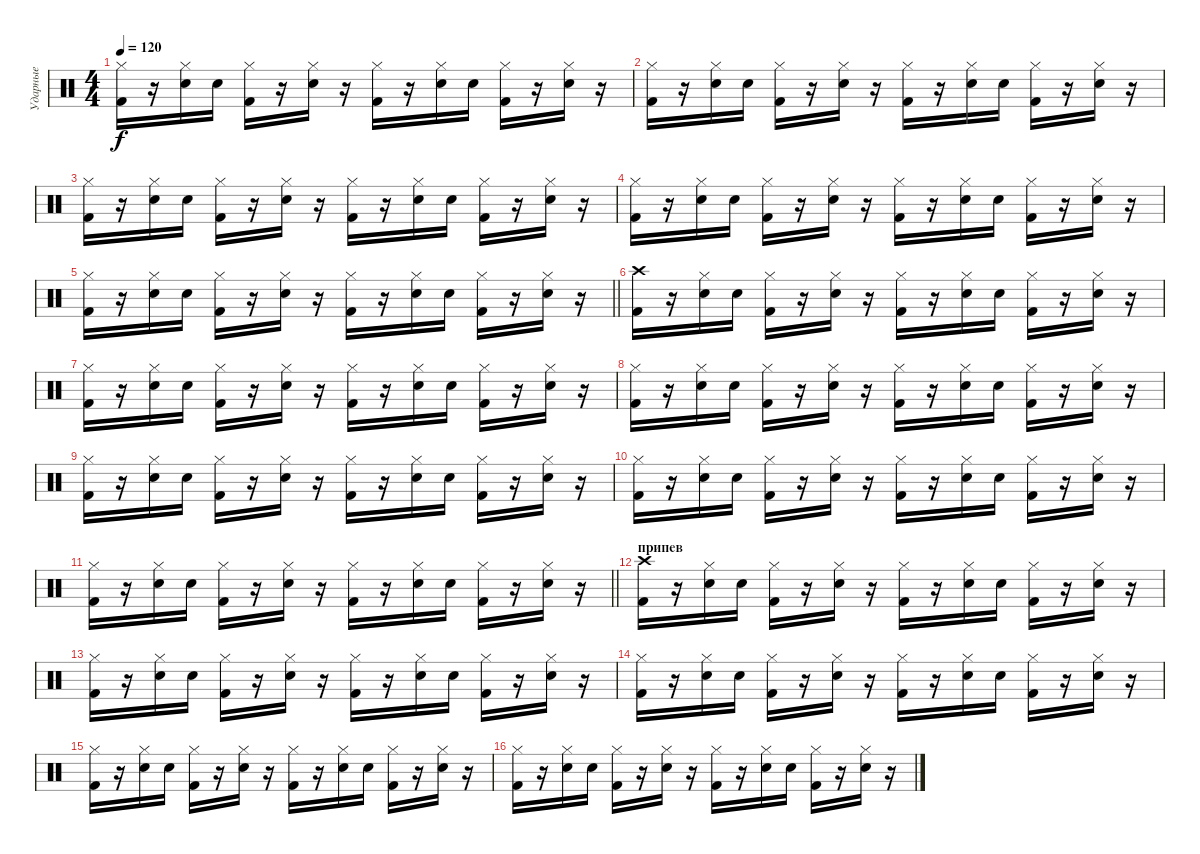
\track ("Ударные" "Ударные") {instrument percussion}
\staff {score}
\articulation defaults
\ts (4 4)
\tempo 120
\clef neutral
\ks c
("Hi-Hat (closed)" "Kick (hit) 2").16{dy f} r.16 ("Hi-Hat (closed)" "Electric Snare (hit)").16 "Electric Snare (hit)".16 ("Hi-Hat (closed)" "Kick (hit) 2").16 r.16 ("Hi-Hat (closed)" "Electric Snare (hit)").16 r.16 ("Hi-Hat (closed)" "Kick (hit) 2").16 r.16 ("Hi-Hat (closed)" "Electric Snare (hit)").16 "Electric Snare (hit)".16 ("Hi-Hat (closed)" "Kick (hit) 2").16 r.16 ("Hi-Hat (closed)" "Electric Snare (hit)").16 r.16 |
("Hi-Hat (closed)" "Kick (hit) 2").16 r.16 ("Hi-Hat (closed)" "Electric Snare (hit)").16 "Electric Snare (hit)".16 ("Hi-Hat (closed)" "Kick (hit) 2").16 r.16 ("Hi-Hat (closed)" "Electric Snare (hit)").16 r.16 ("Hi-Hat (closed)" "Kick (hit) 2").16 r.16 ("Hi-Hat (closed)" "Electric Snare (hit)").16 "Electric Snare (hit)".16 ("Hi-Hat (closed)" "Kick (hit) 2").16 r.16 ("Hi-Hat (closed)" "Electric Snare (hit)").16 r.16 |
("Hi-Hat (closed)" "Kick (hit) 2").16 r.16 ("Hi-Hat (closed)" "Electric Snare (hit)").16 "Electric Snare (hit)".16 ("Hi-Hat (closed)" "Kick (hit) 2").16 r.16 ("Hi-Hat (closed)" "Electric Snare (hit)").16 r.16 ("Hi-Hat (closed)" "Kick (hit) 2").16 r.16 ("Hi-Hat (closed)" "Electric Snare (hit)").16 "Electric Snare (hit)".16 ("Hi-Hat (closed)" "Kick (hit) 2").16 r.16 ("Hi-Hat (closed)" "Electric Snare (hit)").16 r.16 |
("Hi-Hat (closed)" "Kick (hit) 2").16 r.16 ("Hi-Hat (closed)" "Electric Snare (hit)").16 "Electric Snare (hit)".16 ("Hi-Hat (closed)" "Kick (hit) 2").16 r.16 ("Hi-Hat (closed)" "Electric Snare (hit)").16 r.16 ("Hi-Hat (closed)" "Kick (hit) 2").16 r.16 ("Hi-Hat (closed)" "Electric Snare (hit)").16 "Electric Snare (hit)".16 ("Hi-Hat (closed)" "Kick (hit) 2").16 r.16 ("Hi-Hat (closed)" "Electric Snare (hit)").16 r.16 |
\barLineRight lightlight
("Hi-Hat (closed)" "Kick (hit) 2").16 r.16 ("Hi-Hat (closed)" "Electric Snare (hit)").16 "Electric Snare (hit)".16 ("Hi-Hat (closed)" "Kick (hit) 2").16 r.16 ("Hi-Hat (closed)" "Electric Snare (hit)").16 r.16 ("Hi-Hat (closed)" "Kick (hit) 2").16 r.16 ("Hi-Hat (closed)" "Electric Snare (hit)").16 "Electric Snare (hit)".16 ("Hi-Hat (closed)" "Kick (hit) 2").16 r.16 ("Hi-Hat (closed)" "Electric Snare (hit)").16 r.16 |
("Crash high (hit)" "Kick (hit) 2").16 r.16 ("Hi-Hat (closed)" "Electric Snare (hit)").16 "Electric Snare (hit)".16 ("Hi-Hat (closed)" "Kick (hit) 2").16 r.16 ("Hi-Hat (closed)" "Electric Snare (hit)").16 r.16 ("Hi-Hat (closed)" "Kick (hit) 2").16 r.16 ("Hi-Hat (closed)" "Electric Snare (hit)").16 "Electric Snare (hit)".16 ("Hi-Hat (closed)" "Kick (hit) 2").16 r.16 ("Hi-Hat (closed)" "Electric Snare (hit)").16 r.16 |
("Hi-Hat (closed)" "Kick (hit) 2").16 r.16 ("Hi-Hat (closed)" "Electric Snare (hit)").16 "Electric Snare (hit)".16 ("Hi-Hat (closed)" "Kick (hit) 2").16 r.16 ("Hi-Hat (closed)" "Electric Snare (hit)").16 r.16 ("Hi-Hat (closed)" "Kick (hit) 2").16 r.16 ("Hi-Hat (closed)" "Electric Snare (hit)").16 "Electric Snare (hit)".16 ("Hi-Hat (closed)" "Kick (hit) 2").16 r.16 ("Hi-Hat (closed)" "Electric Snare (hit)").16 r.16 |
("Hi-Hat (closed)" "Kick (hit) 2").16 r.16 ("Hi-Hat (closed)" "Electric Snare (hit)").16 "Electric Snare (hit)".16 ("Hi-Hat (closed)" "Kick (hit) 2").16 r.16 ("Hi-Hat (closed)" "Electric Snare (hit)").16 r.16 ("Hi-Hat (closed)" "Kick (hit) 2").16 r.16 ("Hi-Hat (closed)" "Electric Snare (hit)").16 "Electric Snare (hit)".16 ("Hi-Hat (closed)" "Kick (hit) 2").16 r.16 ("Hi-Hat (closed)" "Electric Snare (hit)").16 r.16 |
("Hi-Hat (closed)" "Kick (hit) 2").16 r.16 ("Hi-Hat (closed)" "Electric Snare (hit)").16 "Electric Snare (hit)".16 ("Hi-Hat (closed)" "Kick (hit) 2").16 r.16 ("Hi-Hat (closed)" "Electric Snare (hit)").16 r.16 ("Hi-Hat (closed)" "Kick (hit) 2").16 r.16 ("Hi-Hat (closed)" "Electric Snare (hit)").16 "Electric Snare (hit)".16 ("Hi-Hat (closed)" "Kick (hit) 2").16 r.16 ("Hi-Hat (closed)" "Electric Snare (hit)").16 r.16 |
("Hi-Hat (closed)" "Kick (hit) 2").16 r.16 ("Hi-Hat (closed)" "Electric Snare (hit)").16 "Electric Snare (hit)".16 ("Hi-Hat (closed)" "Kick (hit) 2").16 r.16 ("Hi-Hat (closed)" "Electric Snare (hit)").16 r.16 ("Hi-Hat (closed)" "Kick (hit) 2").16 r.16 ("Hi-Hat (closed)" "Electric Snare (hit)").16 "Electric Snare (hit)".16 ("Hi-Hat (closed)" "Kick (hit) 2").16 r.16 ("Hi-Hat (closed)" "Electric Snare (hit)").16 r.16 |
\barLineRight lightlight
("Hi-Hat (closed)" "Kick (hit) 2").16 r.16 ("Hi-Hat (closed)" "Electric Snare (hit)").16 "Electric Snare (hit)".16 ("Hi-Hat (closed)" "Kick (hit) 2").16 r.16 ("Hi-Hat (closed)" "Electric Snare (hit)").16 r.16 ("Hi-Hat (closed)" "Kick (hit) 2").16 r.16 ("Hi-Hat (closed)" "Electric Snare (hit)").16 "Electric Snare (hit)".16 ("Hi-Hat (closed)" "Kick (hit) 2").16 r.16 ("Hi-Hat (closed)" "Electric Snare (hit)").16 r.16 |
\section ("" "припев")
("Crash high (hit)" "Kick (hit) 2").16 r.16 ("Hi-Hat (closed)" "Electric Snare (hit)").16 "Electric Snare (hit)".16 ("Hi-Hat (closed)" "Kick (hit) 2").16 r.16 ("Hi-Hat (closed)" "Electric Snare (hit)").16 r.16 ("Hi-Hat (closed)" "Kick (hit) 2").16 r.16 ("Hi-Hat (closed)" "Electric Snare (hit)").16 "Electric Snare (hit)".16 ("Hi-Hat (closed)" "Kick (hit) 2").16 r.16 ("Hi-Hat (closed)" "Electric Snare (hit)").16 r.16 |
("Hi-Hat (closed)" "Kick (hit) 2").16 r.16 ("Hi-Hat (closed)" "Electric Snare (hit)").16 "Electric Snare (hit)".16 ("Hi-Hat (closed)" "Kick (hit) 2").16 r.16 ("Hi-Hat (closed)" "Electric Snare (hit)").16 r.16 ("Hi-Hat (closed)" "Kick (hit) 2").16 r.16 ("Hi-Hat (closed)" "Electric Snare (hit)").16 "Electric Snare (hit)".16 ("Hi-Hat (closed)" "Kick (hit) 2").16 r.16 ("Hi-Hat (closed)" "Electric Snare (hit)").16 r.16 |
("Hi-Hat (closed)" "Kick (hit) 2").16 r.16 ("Hi-Hat (closed)" "Electric Snare (hit)").16 "Electric Snare (hit)".16 ("Hi-Hat (closed)" "Kick (hit) 2").16 r.16 ("Hi-Hat (closed)" "Electric Snare (hit)").16 r.16 ("Hi-Hat (closed)" "Kick (hit) 2").16 r.16 ("Hi-Hat (closed)" "Electric Snare (hit)").16 "Electric Snare (hit)".16 ("Hi-Hat (closed)" "Kick (hit) 2").16 r.16 ("Hi-Hat (closed)" "Electric Snare (hit)").16 r.16 |
("Hi-Hat (closed)" "Kick (hit) 2").16 r.16 ("Hi-Hat (closed)" "Electric Snare (hit)").16 "Electric Snare (hit)".16 ("Hi-Hat (closed)" "Kick (hit) 2").16 r.16 ("Hi-Hat (closed)" "Electric Snare (hit)").16 r.16 ("Hi-Hat (closed)" "Kick (hit) 2").16 r.16 ("Hi-Hat (closed)" "Electric Snare (hit)").16 "Electric Snare (hit)".16 ("Hi-Hat (closed)" "Kick (hit) 2").16 r.16 ("Hi-Hat (closed)" "Electric Snare (hit)").16 r.16 |
("Hi-Hat (closed)" "Kick (hit) 2").16 r.16 ("Hi-Hat (closed)" "Electric Snare (hit)").16 "Electric Snare (hit)".16 ("Hi-Hat (closed)" "Kick (hit) 2").16 r.16 ("Hi-Hat (closed)" "Electric Snare (hit)").16 r.16 ("Hi-Hat (closed)" "Kick (hit) 2").16 r.16 ("Hi-Hat (closed)" "Electric Snare (hit)").16 "Electric Snare (hit)".16 ("Hi-Hat (closed)" "Kick (hit) 2").16 r.16 ("Hi-Hat (closed)" "Electric Snare (hit)").16 r.16
